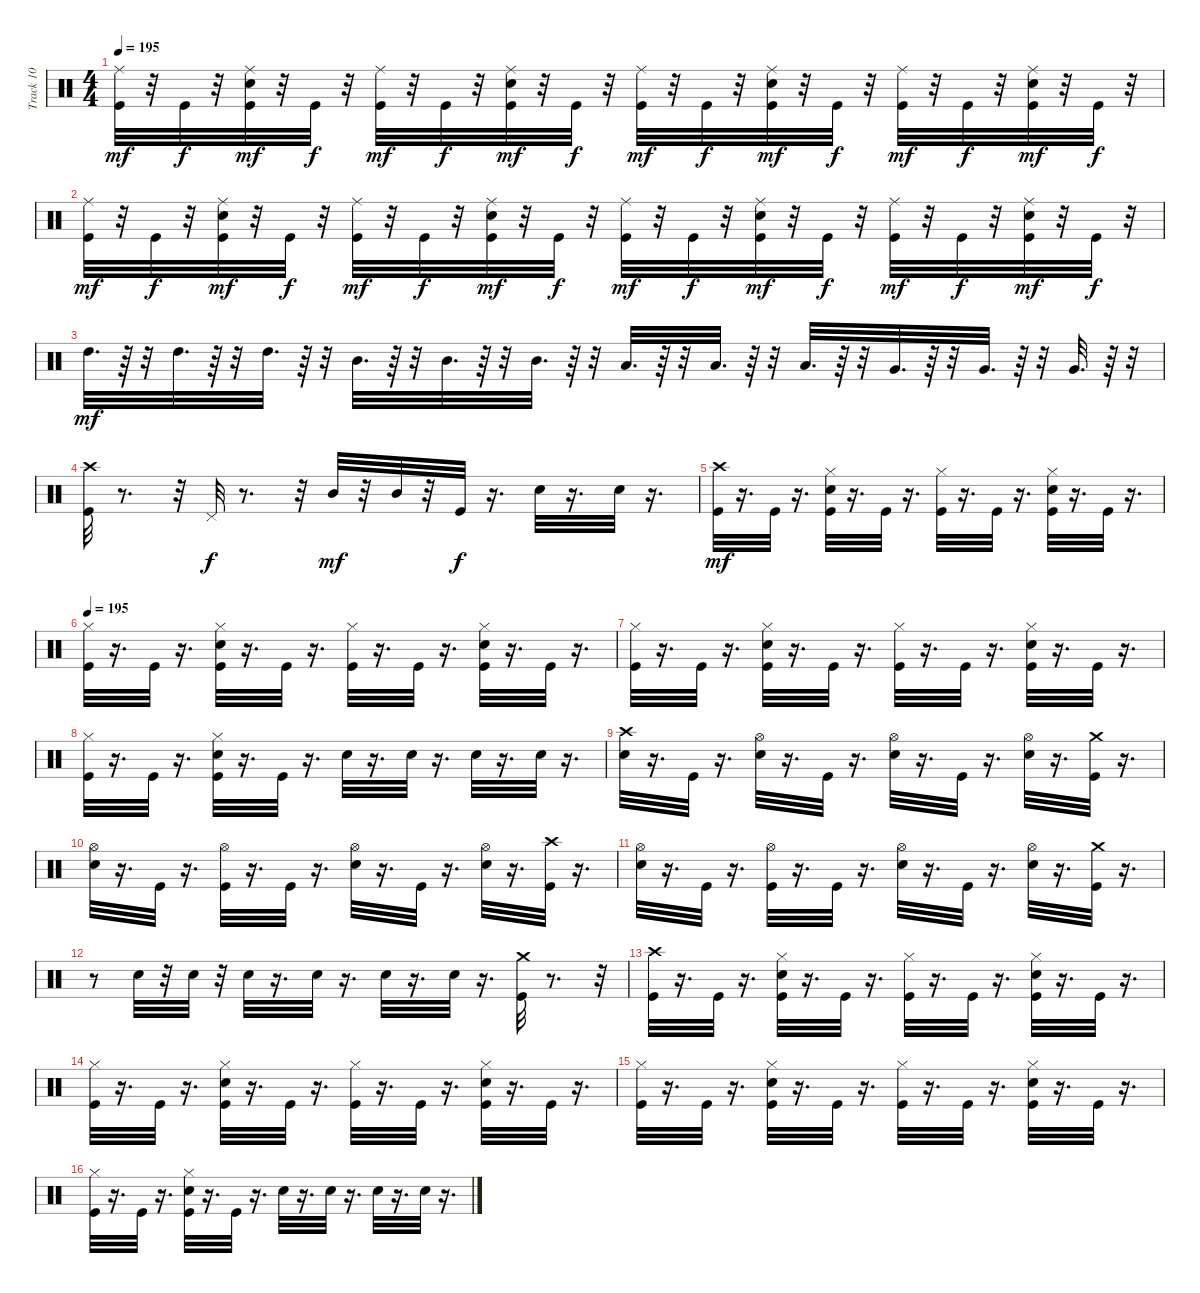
\track ("Track 10" "Track 10") {instrument percussion}
\staff {score}
\articulation defaults
\ts (4 4)
\tempo 195
\clef neutral
\ks c
("Ride (middle)" "Kick (hit)").32{dy mf} r.32 "Kick (hit)".32{dy f} r.32 ("Electric Snare (hit)" "Ride (middle)" "Kick (hit)").32{dy mf} r.32 "Kick (hit)".32{dy f} r.32 ("Ride (middle)" "Kick (hit)").32{dy mf} r.32 "Kick (hit)".32{dy f} r.32 ("Ride (middle)" "Kick (hit)" "Electric Snare (hit)").32{dy mf} r.32 "Kick (hit)".32{dy f} r.32 ("Ride (middle)" "Kick (hit)").32{dy mf} r.32 "Kick (hit)".32{dy f} r.32 ("Ride (middle)" "Kick (hit)" "Electric Snare (hit)").32{dy mf} r.32 "Kick (hit)".32{dy f} r.32 ("Ride (middle)" "Kick (hit)").32{dy mf} r.32 "Kick (hit)".32{dy f} r.32 ("Electric Snare (hit)" "Ride (middle)" "Kick (hit)").32{dy mf} r.32 "Kick (hit)".32{dy f} r.32 |
("Ride (middle)" "Kick (hit)").32{dy mf} r.32 "Kick (hit)".32{dy f} r.32 ("Electric Snare (hit)" "Ride (middle)" "Kick (hit)").32{dy mf} r.32 "Kick (hit)".32{dy f} r.32 ("Ride (middle)" "Kick (hit)").32{dy mf} r.32 "Kick (hit)".32{dy f} r.32 ("Ride (middle)" "Kick (hit)" "Electric Snare (hit)").32{dy mf} r.32 "Kick (hit)".32{dy f} r.32 ("Ride (middle)" "Kick (hit)").32{dy mf} r.32 "Kick (hit)".32{dy f} r.32 ("Ride (middle)" "Kick (hit)" "Electric Snare (hit)").32{dy mf} r.32 "Kick (hit)".32{dy f} r.32 ("Ride (middle)" "Kick (hit)").32{dy mf} r.32 "Kick (hit)".32{dy f} r.32 ("Electric Snare (hit)" "Ride (middle)" "Kick (hit)").32{dy mf} r.32 "Kick (hit)".32{dy f} r.32 |
"High Tom (hit)".32{d dy mf} r.64 r.32 "High Tom (hit)".32{d} r.64 r.32 "High Tom (hit)".32{d} r.64 r.32 "Mid Tom (hit)".32{d} r.64 r.32 "Mid Tom (hit)".32{d} r.64 r.32 "Mid Tom (hit)".32{d} r.64 r.32 "Low Tom (hit)".32{d} r.64 r.32 "Low Tom (hit)".32{d} r.64 r.32 "Low Tom (hit)".32{d} r.64 r.32 "Very Low Tom (hit)".32{d} r.64 r.32 "Very Low Tom (hit)".32{d} r.64 r.32 "Very Low Tom (hit)".32{d} r.64 r.32 |
("Crash high (hit)" "Kick (hit)").32 r.8{d} r.32 "Pedal Hi-Hat (hit)".32{dy f} r.8{d} r.32 "Mid Tom (hit)".32{dy mf} r.32 "Mid Tom (hit)".32 r.32 "Kick (hit)".32{dy f} r.16{d} "Electric Snare (hit)".32 r.16{d} "Electric Snare (hit)".32 r.16{d} |
("Crash high (hit)" "Kick (hit)").32{dy mf} r.16{d} "Kick (hit)".32 r.16{d} ("Electric Snare (hit)" "Kick (hit)" "Hi-Hat (closed)").32 r.16{d} "Kick (hit)".32 r.16{d} ("Kick (hit)" "Hi-Hat (closed)").32 r.16{d} "Kick (hit)".32 r.16{d} ("Electric Snare (hit)" "Kick (hit)" "Hi-Hat (closed)").32 r.16{d} "Kick (hit)".32 r.16{d} |
\tempo 195
("Hi-Hat (closed)" "Kick (hit)").32 r.16{d} "Kick (hit)".32 r.16{d} ("Electric Snare (hit)" "Kick (hit)" "Hi-Hat (closed)").32 r.16{d} "Kick (hit)".32 r.16{d} ("Kick (hit)" "Hi-Hat (closed)").32 r.16{d} "Kick (hit)".32 r.16{d} ("Electric Snare (hit)" "Kick (hit)" "Hi-Hat (closed)").32 r.16{d} "Kick (hit)".32 r.16{d} |
("Hi-Hat (closed)" "Kick (hit)").32 r.16{d} "Kick (hit)".32 r.16{d} ("Electric Snare (hit)" "Kick (hit)" "Hi-Hat (closed)").32 r.16{d} "Kick (hit)".32 r.16{d} ("Kick (hit)" "Hi-Hat (closed)").32 r.16{d} "Kick (hit)".32 r.16{d} ("Electric Snare (hit)" "Kick (hit)" "Hi-Hat (closed)").32 r.16{d} "Kick (hit)".32 r.16{d} |
("Hi-Hat (closed)" "Kick (hit)").32 r.16{d} "Kick (hit)".32 r.16{d} ("Electric Snare (hit)" "Kick (hit)" "Hi-Hat (closed)").32 r.16{d} "Kick (hit)".32 r.16{d} "Electric Snare (hit)".32 r.16{d} "Electric Snare (hit)".32 r.16{d} "Electric Snare (hit)".32 r.16{d} "Electric Snare (hit)".32 r.16{d} |
("Crash high (hit)" "Electric Snare (hit)").32 r.16{d} "Kick (hit)".32 r.16{d} ("Electric Snare (hit)" "Hi-Hat (open)").32 r.16{d} "Kick (hit)".32 r.16{d} ("Electric Snare (hit)" "Hi-Hat (open)").32 r.16{d} "Kick (hit)".32 r.16{d} ("Hi-Hat (open)" "Electric Snare (hit)").32 r.16{d} ("Kick (hit)" "Crash medium (hit)").32 r.16{d} |
("Hi-Hat (open)" "Electric Snare (hit)").32 r.16{d} "Kick (hit)".32 r.16{d} ("Hi-Hat (open)" "Kick (hit)").32 r.16{d} "Kick (hit)".32 r.16{d} ("Hi-Hat (open)" "Electric Snare (hit)").32 r.16{d} "Kick (hit)".32 r.16{d} ("Electric Snare (hit)" "Hi-Hat (open)").32 r.16{d} ("Crash high (hit)" "Kick (hit)").32 r.16{d} |
("Electric Snare (hit)" "Hi-Hat (open)").32 r.16{d} "Kick (hit)".32 r.16{d} ("Kick (hit)" "Hi-Hat (open)").32 r.16{d} "Kick (hit)".32 r.16{d} ("Electric Snare (hit)" "Hi-Hat (open)").32 r.16{d} "Kick (hit)".32 r.16{d} ("Electric Snare (hit)" "Hi-Hat (open)").32 r.16{d} ("Kick (hit)" "Crash medium (hit)").32 r.16{d} |
r.8 "Electric Snare (hit)".32 r.32 "Electric Snare (hit)".32 r.32 "Electric Snare (hit)".32 r.16{d} "Electric Snare (hit)".32 r.16{d} "Electric Snare (hit)".32 r.16{d} "Electric Snare (hit)".32 r.16{d} ("Kick (hit)" "Crash medium (hit)").32 r.8{d} r.32 |
("Crash high (hit)" "Kick (hit)").32 r.16{d} "Kick (hit)".32 r.16{d} ("Electric Snare (hit)" "Kick (hit)" "Hi-Hat (closed)").32 r.16{d} "Kick (hit)".32 r.16{d} ("Kick (hit)" "Hi-Hat (closed)").32 r.16{d} "Kick (hit)".32 r.16{d} ("Electric Snare (hit)" "Kick (hit)" "Hi-Hat (closed)").32 r.16{d} "Kick (hit)".32 r.16{d} |
("Hi-Hat (closed)" "Kick (hit)").32 r.16{d} "Kick (hit)".32 r.16{d} ("Electric Snare (hit)" "Kick (hit)" "Hi-Hat (closed)").32 r.16{d} "Kick (hit)".32 r.16{d} ("Kick (hit)" "Hi-Hat (closed)").32 r.16{d} "Kick (hit)".32 r.16{d} ("Electric Snare (hit)" "Kick (hit)" "Hi-Hat (closed)").32 r.16{d} "Kick (hit)".32 r.16{d} |
("Hi-Hat (closed)" "Kick (hit)").32 r.16{d} "Kick (hit)".32 r.16{d} ("Electric Snare (hit)" "Kick (hit)" "Hi-Hat (closed)").32 r.16{d} "Kick (hit)".32 r.16{d} ("Kick (hit)" "Hi-Hat (closed)").32 r.16{d} "Kick (hit)".32 r.16{d} ("Electric Snare (hit)" "Kick (hit)" "Hi-Hat (closed)").32 r.16{d} "Kick (hit)".32 r.16{d} |
("Hi-Hat (closed)" "Kick (hit)").32 r.16{d} "Kick (hit)".32 r.16{d} ("Electric Snare (hit)" "Kick (hit)" "Hi-Hat (closed)").32 r.16{d} "Kick (hit)".32 r.16{d} "Electric Snare (hit)".32 r.16{d} "Electric Snare (hit)".32 r.16{d} "Electric Snare (hit)".32 r.16{d} "Electric Snare (hit)".32 r.16{d}
